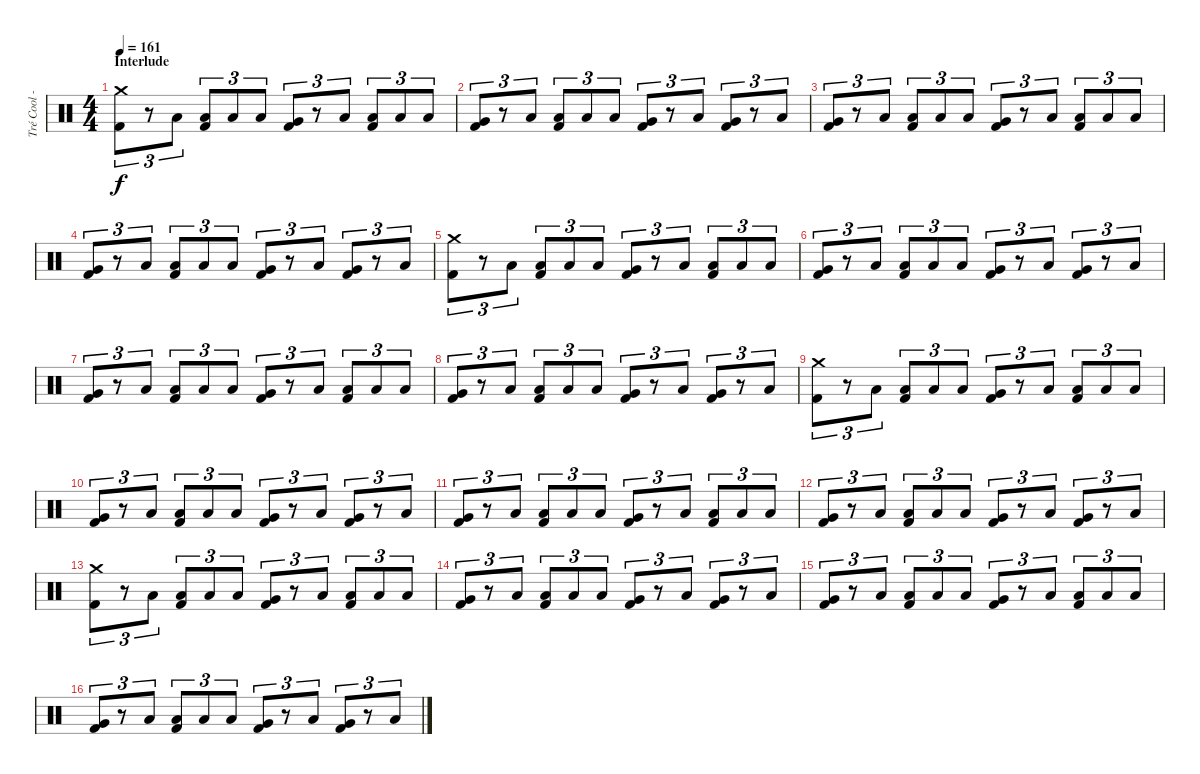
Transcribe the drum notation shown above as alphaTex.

\track ("Tré Cool - Drums" "Tré Cool -") {instrument percussion}
\staff {score}
\articulation defaults
\ts (4 4)
\section ("" "Interlude")
\tempo 161
\clef neutral
\ks c
("Crash medium (hit)" "Kick (hit) 2").8{tu (3 2) dy f} r.8{tu (3 2)} "Low Floor Tom (hit)".8{tu (3 2)} ("Low Floor Tom (hit)" "Kick (hit) 2").8{tu (3 2)} "Low Floor Tom (hit)".8{tu (3 2)} "Low Floor Tom (hit)".8{tu (3 2)} ("Very Low Tom (hit)" "Kick (hit) 2").8{tu (3 2)} r.8{tu (3 2)} "Low Floor Tom (hit)".8{tu (3 2)} ("Low Floor Tom (hit)" "Kick (hit) 2").8{tu (3 2)} "Low Floor Tom (hit)".8{tu (3 2)} "Low Floor Tom (hit)".8{tu (3 2)} |
("Very Low Tom (hit)" "Kick (hit) 2").8{tu (3 2)} r.8{tu (3 2)} "Low Floor Tom (hit)".8{tu (3 2)} ("Low Floor Tom (hit)" "Kick (hit) 2").8{tu (3 2)} "Low Floor Tom (hit)".8{tu (3 2)} "Low Floor Tom (hit)".8{tu (3 2)} ("Very Low Tom (hit)" "Kick (hit) 2").8{tu (3 2)} r.8{tu (3 2)} "Low Floor Tom (hit)".8{tu (3 2)} ("Very Low Tom (hit)" "Kick (hit) 2").8{tu (3 2)} r.8{tu (3 2)} "Low Floor Tom (hit)".8{tu (3 2)} |
("Very Low Tom (hit)" "Kick (hit) 2").8{tu (3 2)} r.8{tu (3 2)} "Low Floor Tom (hit)".8{tu (3 2)} ("Low Floor Tom (hit)" "Kick (hit) 2").8{tu (3 2)} "Low Floor Tom (hit)".8{tu (3 2)} "Low Floor Tom (hit)".8{tu (3 2)} ("Very Low Tom (hit)" "Kick (hit) 2").8{tu (3 2)} r.8{tu (3 2)} "Low Floor Tom (hit)".8{tu (3 2)} ("Low Floor Tom (hit)" "Kick (hit) 2").8{tu (3 2)} "Low Floor Tom (hit)".8{tu (3 2)} "Low Floor Tom (hit)".8{tu (3 2)} |
("Very Low Tom (hit)" "Kick (hit) 2").8{tu (3 2)} r.8{tu (3 2)} "Low Floor Tom (hit)".8{tu (3 2)} ("Low Floor Tom (hit)" "Kick (hit) 2").8{tu (3 2)} "Low Floor Tom (hit)".8{tu (3 2)} "Low Floor Tom (hit)".8{tu (3 2)} ("Very Low Tom (hit)" "Kick (hit) 2").8{tu (3 2)} r.8{tu (3 2)} "Low Floor Tom (hit)".8{tu (3 2)} ("Very Low Tom (hit)" "Kick (hit) 2").8{tu (3 2)} r.8{tu (3 2)} "Low Floor Tom (hit)".8{tu (3 2)} |
("Crash medium (hit)" "Kick (hit) 2").8{tu (3 2)} r.8{tu (3 2)} "Low Floor Tom (hit)".8{tu (3 2)} ("Low Floor Tom (hit)" "Kick (hit) 2").8{tu (3 2)} "Low Floor Tom (hit)".8{tu (3 2)} "Low Floor Tom (hit)".8{tu (3 2)} ("Very Low Tom (hit)" "Kick (hit) 2").8{tu (3 2)} r.8{tu (3 2)} "Low Floor Tom (hit)".8{tu (3 2)} ("Low Floor Tom (hit)" "Kick (hit) 2").8{tu (3 2)} "Low Floor Tom (hit)".8{tu (3 2)} "Low Floor Tom (hit)".8{tu (3 2)} |
("Very Low Tom (hit)" "Kick (hit) 2").8{tu (3 2)} r.8{tu (3 2)} "Low Floor Tom (hit)".8{tu (3 2)} ("Low Floor Tom (hit)" "Kick (hit) 2").8{tu (3 2)} "Low Floor Tom (hit)".8{tu (3 2)} "Low Floor Tom (hit)".8{tu (3 2)} ("Very Low Tom (hit)" "Kick (hit) 2").8{tu (3 2)} r.8{tu (3 2)} "Low Floor Tom (hit)".8{tu (3 2)} ("Very Low Tom (hit)" "Kick (hit) 2").8{tu (3 2)} r.8{tu (3 2)} "Low Floor Tom (hit)".8{tu (3 2)} |
("Very Low Tom (hit)" "Kick (hit) 2").8{tu (3 2)} r.8{tu (3 2)} "Low Floor Tom (hit)".8{tu (3 2)} ("Low Floor Tom (hit)" "Kick (hit) 2").8{tu (3 2)} "Low Floor Tom (hit)".8{tu (3 2)} "Low Floor Tom (hit)".8{tu (3 2)} ("Very Low Tom (hit)" "Kick (hit) 2").8{tu (3 2)} r.8{tu (3 2)} "Low Floor Tom (hit)".8{tu (3 2)} ("Low Floor Tom (hit)" "Kick (hit) 2").8{tu (3 2)} "Low Floor Tom (hit)".8{tu (3 2)} "Low Floor Tom (hit)".8{tu (3 2)} |
("Very Low Tom (hit)" "Kick (hit) 2").8{tu (3 2)} r.8{tu (3 2)} "Low Floor Tom (hit)".8{tu (3 2)} ("Low Floor Tom (hit)" "Kick (hit) 2").8{tu (3 2)} "Low Floor Tom (hit)".8{tu (3 2)} "Low Floor Tom (hit)".8{tu (3 2)} ("Very Low Tom (hit)" "Kick (hit) 2").8{tu (3 2)} r.8{tu (3 2)} "Low Floor Tom (hit)".8{tu (3 2)} ("Very Low Tom (hit)" "Kick (hit) 2").8{tu (3 2)} r.8{tu (3 2)} "Low Floor Tom (hit)".8{tu (3 2)} |
("Crash medium (hit)" "Kick (hit) 2").8{tu (3 2)} r.8{tu (3 2)} "Low Floor Tom (hit)".8{tu (3 2)} ("Low Floor Tom (hit)" "Kick (hit) 2").8{tu (3 2)} "Low Floor Tom (hit)".8{tu (3 2)} "Low Floor Tom (hit)".8{tu (3 2)} ("Very Low Tom (hit)" "Kick (hit) 2").8{tu (3 2)} r.8{tu (3 2)} "Low Floor Tom (hit)".8{tu (3 2)} ("Low Floor Tom (hit)" "Kick (hit) 2").8{tu (3 2)} "Low Floor Tom (hit)".8{tu (3 2)} "Low Floor Tom (hit)".8{tu (3 2)} |
("Very Low Tom (hit)" "Kick (hit) 2").8{tu (3 2)} r.8{tu (3 2)} "Low Floor Tom (hit)".8{tu (3 2)} ("Low Floor Tom (hit)" "Kick (hit) 2").8{tu (3 2)} "Low Floor Tom (hit)".8{tu (3 2)} "Low Floor Tom (hit)".8{tu (3 2)} ("Very Low Tom (hit)" "Kick (hit) 2").8{tu (3 2)} r.8{tu (3 2)} "Low Floor Tom (hit)".8{tu (3 2)} ("Very Low Tom (hit)" "Kick (hit) 2").8{tu (3 2)} r.8{tu (3 2)} "Low Floor Tom (hit)".8{tu (3 2)} |
("Very Low Tom (hit)" "Kick (hit) 2").8{tu (3 2)} r.8{tu (3 2)} "Low Floor Tom (hit)".8{tu (3 2)} ("Low Floor Tom (hit)" "Kick (hit) 2").8{tu (3 2)} "Low Floor Tom (hit)".8{tu (3 2)} "Low Floor Tom (hit)".8{tu (3 2)} ("Very Low Tom (hit)" "Kick (hit) 2").8{tu (3 2)} r.8{tu (3 2)} "Low Floor Tom (hit)".8{tu (3 2)} ("Low Floor Tom (hit)" "Kick (hit) 2").8{tu (3 2)} "Low Floor Tom (hit)".8{tu (3 2)} "Low Floor Tom (hit)".8{tu (3 2)} |
("Very Low Tom (hit)" "Kick (hit) 2").8{tu (3 2)} r.8{tu (3 2)} "Low Floor Tom (hit)".8{tu (3 2)} ("Low Floor Tom (hit)" "Kick (hit) 2").8{tu (3 2)} "Low Floor Tom (hit)".8{tu (3 2)} "Low Floor Tom (hit)".8{tu (3 2)} ("Very Low Tom (hit)" "Kick (hit) 2").8{tu (3 2)} r.8{tu (3 2)} "Low Floor Tom (hit)".8{tu (3 2)} ("Very Low Tom (hit)" "Kick (hit) 2").8{tu (3 2)} r.8{tu (3 2)} "Low Floor Tom (hit)".8{tu (3 2)} |
("Crash medium (hit)" "Kick (hit) 2").8{tu (3 2)} r.8{tu (3 2)} "Low Floor Tom (hit)".8{tu (3 2)} ("Low Floor Tom (hit)" "Kick (hit) 2").8{tu (3 2)} "Low Floor Tom (hit)".8{tu (3 2)} "Low Floor Tom (hit)".8{tu (3 2)} ("Very Low Tom (hit)" "Kick (hit) 2").8{tu (3 2)} r.8{tu (3 2)} "Low Floor Tom (hit)".8{tu (3 2)} ("Low Floor Tom (hit)" "Kick (hit) 2").8{tu (3 2)} "Low Floor Tom (hit)".8{tu (3 2)} "Low Floor Tom (hit)".8{tu (3 2)} |
("Very Low Tom (hit)" "Kick (hit) 2").8{tu (3 2)} r.8{tu (3 2)} "Low Floor Tom (hit)".8{tu (3 2)} ("Low Floor Tom (hit)" "Kick (hit) 2").8{tu (3 2)} "Low Floor Tom (hit)".8{tu (3 2)} "Low Floor Tom (hit)".8{tu (3 2)} ("Very Low Tom (hit)" "Kick (hit) 2").8{tu (3 2)} r.8{tu (3 2)} "Low Floor Tom (hit)".8{tu (3 2)} ("Very Low Tom (hit)" "Kick (hit) 2").8{tu (3 2)} r.8{tu (3 2)} "Low Floor Tom (hit)".8{tu (3 2)} |
("Very Low Tom (hit)" "Kick (hit) 2").8{tu (3 2)} r.8{tu (3 2)} "Low Floor Tom (hit)".8{tu (3 2)} ("Low Floor Tom (hit)" "Kick (hit) 2").8{tu (3 2)} "Low Floor Tom (hit)".8{tu (3 2)} "Low Floor Tom (hit)".8{tu (3 2)} ("Very Low Tom (hit)" "Kick (hit) 2").8{tu (3 2)} r.8{tu (3 2)} "Low Floor Tom (hit)".8{tu (3 2)} ("Low Floor Tom (hit)" "Kick (hit) 2").8{tu (3 2)} "Low Floor Tom (hit)".8{tu (3 2)} "Low Floor Tom (hit)".8{tu (3 2)} |
("Very Low Tom (hit)" "Kick (hit) 2").8{tu (3 2)} r.8{tu (3 2)} "Low Floor Tom (hit)".8{tu (3 2)} ("Low Floor Tom (hit)" "Kick (hit) 2").8{tu (3 2)} "Low Floor Tom (hit)".8{tu (3 2)} "Low Floor Tom (hit)".8{tu (3 2)} ("Very Low Tom (hit)" "Kick (hit) 2").8{tu (3 2)} r.8{tu (3 2)} "Low Floor Tom (hit)".8{tu (3 2)} ("Very Low Tom (hit)" "Kick (hit) 2").8{tu (3 2)} r.8{tu (3 2)} "Low Floor Tom (hit)".8{tu (3 2)}
